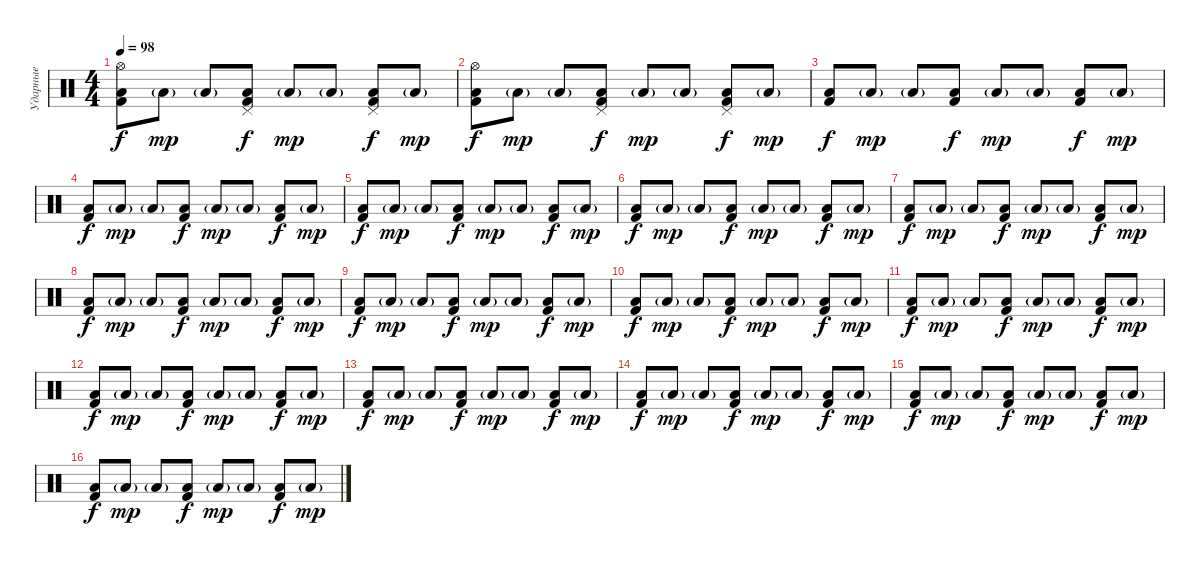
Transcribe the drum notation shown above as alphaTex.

\track ("Ударные" "Ударные") {instrument percussion}
\staff {score}
\articulation defaults
\ts (4 4)
\tempo 98
\clef neutral
\ks c
("Hi-Hat (open)" "Kick (hit) 2" "Low Tom (hit)").8{dy f} "Low Tom (hit)"{g}.8{dy mp} "Low Tom (hit)"{g}.8 ("Pedal Hi-Hat (hit)" "Kick (hit) 2" "Low Tom (hit)").8{dy f} "Low Tom (hit)"{g}.8{dy mp} "Low Tom (hit)"{g}.8 ("Pedal Hi-Hat (hit)" "Kick (hit) 2" "Low Tom (hit)").8{dy f} "Low Tom (hit)"{g}.8{dy mp} |
("Hi-Hat (open)" "Kick (hit) 2" "Low Tom (hit)").8{dy f} "Low Tom (hit)"{g}.8{dy mp} "Low Tom (hit)"{g}.8 ("Pedal Hi-Hat (hit)" "Kick (hit) 2" "Low Tom (hit)").8{dy f} "Low Tom (hit)"{g}.8{dy mp} "Low Tom (hit)"{g}.8 ("Pedal Hi-Hat (hit)" "Kick (hit) 2" "Low Tom (hit)").8{dy f} "Low Tom (hit)"{g}.8{dy mp} |
("Kick (hit) 2" "Low Tom (hit)").8{dy f} "Low Tom (hit)"{g}.8{dy mp} "Low Tom (hit)"{g}.8 ("Kick (hit) 2" "Low Tom (hit)").8{dy f} "Low Tom (hit)"{g}.8{dy mp} "Low Tom (hit)"{g}.8 ("Kick (hit) 2" "Low Tom (hit)").8{dy f} "Low Tom (hit)"{g}.8{dy mp} |
("Kick (hit) 2" "Low Tom (hit)").8{dy f} "Low Tom (hit)"{g}.8{dy mp} "Low Tom (hit)"{g}.8 ("Kick (hit) 2" "Low Tom (hit)").8{dy f} "Low Tom (hit)"{g}.8{dy mp} "Low Tom (hit)"{g}.8 ("Kick (hit) 2" "Low Tom (hit)").8{dy f} "Low Tom (hit)"{g}.8{dy mp} |
("Kick (hit) 2" "Low Tom (hit)").8{dy f} "Low Tom (hit)"{g}.8{dy mp} "Low Tom (hit)"{g}.8 ("Kick (hit) 2" "Low Tom (hit)").8{dy f} "Low Tom (hit)"{g}.8{dy mp} "Low Tom (hit)"{g}.8 ("Kick (hit) 2" "Low Tom (hit)").8{dy f} "Low Tom (hit)"{g}.8{dy mp} |
("Kick (hit) 2" "Low Tom (hit)").8{dy f} "Low Tom (hit)"{g}.8{dy mp} "Low Tom (hit)"{g}.8 ("Kick (hit) 2" "Low Tom (hit)").8{dy f} "Low Tom (hit)"{g}.8{dy mp} "Low Tom (hit)"{g}.8 ("Kick (hit) 2" "Low Tom (hit)").8{dy f} "Low Tom (hit)"{g}.8{dy mp} |
("Kick (hit) 2" "Low Tom (hit)").8{dy f} "Low Tom (hit)"{g}.8{dy mp} "Low Tom (hit)"{g}.8 ("Kick (hit) 2" "Low Tom (hit)").8{dy f} "Low Tom (hit)"{g}.8{dy mp} "Low Tom (hit)"{g}.8 ("Kick (hit) 2" "Low Tom (hit)").8{dy f} "Low Tom (hit)"{g}.8{dy mp} |
("Kick (hit) 2" "Low Tom (hit)").8{dy f} "Low Tom (hit)"{g}.8{dy mp} "Low Tom (hit)"{g}.8 ("Kick (hit) 2" "Low Tom (hit)").8{dy f} "Low Tom (hit)"{g}.8{dy mp} "Low Tom (hit)"{g}.8 ("Kick (hit) 2" "Low Tom (hit)").8{dy f} "Low Tom (hit)"{g}.8{dy mp} |
("Kick (hit) 2" "Low Tom (hit)").8{dy f} "Low Tom (hit)"{g}.8{dy mp} "Low Tom (hit)"{g}.8 ("Kick (hit) 2" "Low Tom (hit)").8{dy f} "Low Tom (hit)"{g}.8{dy mp} "Low Tom (hit)"{g}.8 ("Kick (hit) 2" "Low Tom (hit)").8{dy f} "Low Tom (hit)"{g}.8{dy mp} |
("Kick (hit) 2" "Low Tom (hit)").8{dy f} "Low Tom (hit)"{g}.8{dy mp} "Low Tom (hit)"{g}.8 ("Kick (hit) 2" "Low Tom (hit)").8{dy f} "Low Tom (hit)"{g}.8{dy mp} "Low Tom (hit)"{g}.8 ("Kick (hit) 2" "Low Tom (hit)").8{dy f} "Low Tom (hit)"{g}.8{dy mp} |
("Kick (hit) 2" "Low Tom (hit)").8{dy f} "Low Tom (hit)"{g}.8{dy mp} "Low Tom (hit)"{g}.8 ("Kick (hit) 2" "Low Tom (hit)").8{dy f} "Low Tom (hit)"{g}.8{dy mp} "Low Tom (hit)"{g}.8 ("Kick (hit) 2" "Low Tom (hit)").8{dy f} "Low Tom (hit)"{g}.8{dy mp} |
("Kick (hit) 2" "Low Tom (hit)").8{dy f} "Low Tom (hit)"{g}.8{dy mp} "Low Tom (hit)"{g}.8 ("Kick (hit) 2" "Low Tom (hit)").8{dy f} "Low Tom (hit)"{g}.8{dy mp} "Low Tom (hit)"{g}.8 ("Kick (hit) 2" "Low Tom (hit)").8{dy f} "Low Tom (hit)"{g}.8{dy mp} |
("Kick (hit) 2" "Low Tom (hit)").8{dy f} "Low Tom (hit)"{g}.8{dy mp} "Low Tom (hit)"{g}.8 ("Kick (hit) 2" "Low Tom (hit)").8{dy f} "Low Tom (hit)"{g}.8{dy mp} "Low Tom (hit)"{g}.8 ("Kick (hit) 2" "Low Tom (hit)").8{dy f} "Low Tom (hit)"{g}.8{dy mp} |
("Kick (hit) 2" "Low Tom (hit)").8{dy f} "Low Tom (hit)"{g}.8{dy mp} "Low Tom (hit)"{g}.8 ("Kick (hit) 2" "Low Tom (hit)").8{dy f} "Low Tom (hit)"{g}.8{dy mp} "Low Tom (hit)"{g}.8 ("Kick (hit) 2" "Low Tom (hit)").8{dy f} "Low Tom (hit)"{g}.8{dy mp} |
("Kick (hit) 2" "Low Tom (hit)").8{dy f} "Low Tom (hit)"{g}.8{dy mp} "Low Tom (hit)"{g}.8 ("Kick (hit) 2" "Low Tom (hit)").8{dy f} "Low Tom (hit)"{g}.8{dy mp} "Low Tom (hit)"{g}.8 ("Kick (hit) 2" "Low Tom (hit)").8{dy f} "Low Tom (hit)"{g}.8{dy mp} |
("Kick (hit) 2" "Low Tom (hit)").8{dy f} "Low Tom (hit)"{g}.8{dy mp} "Low Tom (hit)"{g}.8 ("Kick (hit) 2" "Low Tom (hit)").8{dy f} "Low Tom (hit)"{g}.8{dy mp} "Low Tom (hit)"{g}.8 ("Kick (hit) 2" "Low Tom (hit)").8{dy f} "Low Tom (hit)"{g}.8{dy mp}
